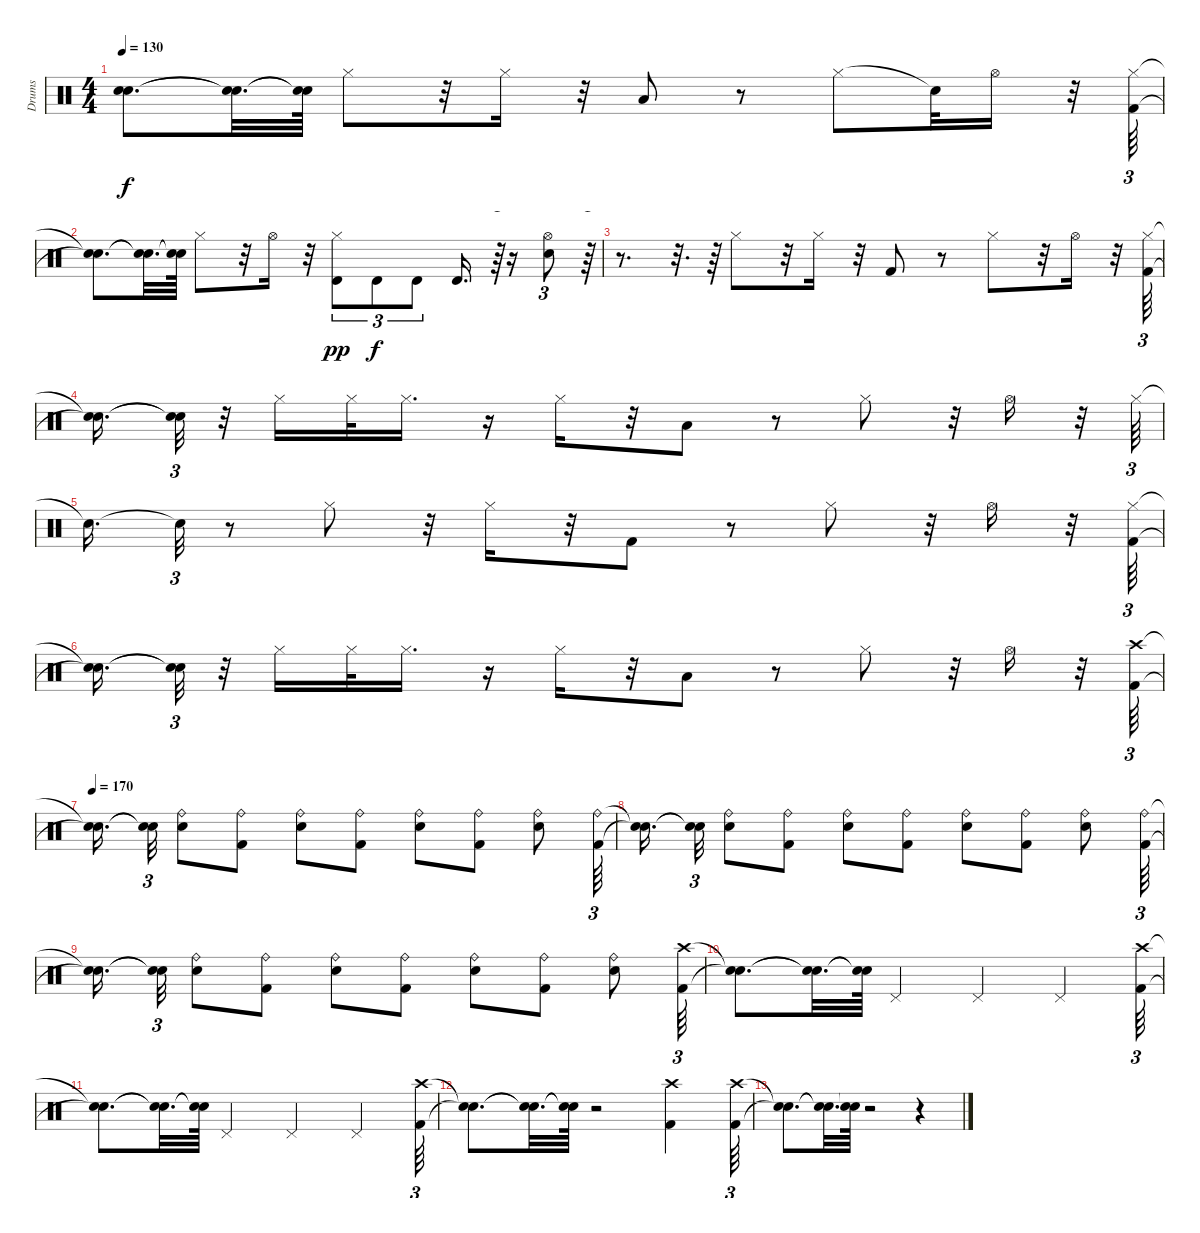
\track ("Drums" "Drums") {instrument percussion}
\staff {score}
\articulation defaults
\ts (4 4)
\tempo 130
\clef neutral
\ks c
("Snare (hit)"{t} "Snare (hit)"{t}).8{d dy f} ("Snare (hit)"{t} "Snare (hit)"{t}).32{d} ("Snare (hit)"{t} "Snare (hit)"{t}).64 "Hi-Hat (closed)".8 r.32 "Hi-Hat (closed)".16 r.32 "Low Tom (hit)".8 r.8 "Hi-Hat (closed)".8 "Snare (hit)"{t}.32 "Hi-Hat (open)".16 r.32 ("Hi-Hat (closed)" "Kick (hit) 2").64{tu (3 2)} |
("Snare (hit)"{t} "Snare (hit)"{t}).8{d} ("Snare (hit)"{t} "Snare (hit)"{t}).32{d} ("Snare (hit)"{t} "Snare (hit)"{t}).64 "Hi-Hat (closed)".8 r.32 "Hi-Hat (open)".16 r.32 ("Hi-Hat (closed)" "Timbale high (hit)").8{tu (3 2) dy pp} "Timbale high (hit)".8{tu (3 2) dy f} "Timbale high (hit)".8{tu (3 2)} "Timbale high (hit)".16{d} r.64{tu (3 2)} r.16 ("Electric Snare (hit)" "Hi-Hat (open)").8{tu (3 2)} r.64{tu (3 2)} |
r.8{d} r.32{d} r.64 "Hi-Hat (closed)".8 r.32 "Hi-Hat (closed)".16 r.32 "Kick (hit) 2".8 r.8 "Hi-Hat (closed)".8 r.32 "Hi-Hat (open)".16 r.32 ("Hi-Hat (closed)" "Kick (hit) 2").64{tu (3 2)} |
("Snare (hit)"{t} "Snare (hit)"{t}).16{d} ("Snare (hit)"{t} "Snare (hit)"{t}).32{tu (3 2)} r.32 "Hi-Hat (closed)".16 "Hi-Hat (closed)".32 "Hi-Hat (closed)".16{d} r.16 "Hi-Hat (closed)".16 r.32 "Low Tom (hit)".8 r.8 "Hi-Hat (closed)".8 r.32 "Hi-Hat (open)".16 r.32 "Hi-Hat (closed)".64{tu (3 2)} |
"Snare (hit)"{t}.16{d} "Snare (hit)"{t}.32{tu (3 2)} r.8 "Hi-Hat (closed)".8 r.32 "Hi-Hat (closed)".16 r.32 "Kick (hit) 2".8 r.8 "Hi-Hat (closed)".8 r.32 "Hi-Hat (open)".16 r.32 ("Kick (hit) 2" "Hi-Hat (closed)").64{tu (3 2)} |
("Snare (hit)"{t} "Snare (hit)"{t}).16{d} ("Snare (hit)"{t} "Snare (hit)"{t}).32{tu (3 2)} r.32 "Hi-Hat (closed)".16 "Hi-Hat (closed)".32 "Hi-Hat (closed)".16{d} r.16 "Hi-Hat (closed)".16 r.32 "Low Tom (hit)".8 r.8 "Hi-Hat (closed)".8 r.32 "Hi-Hat (open)".16 r.32 ("Kick (hit) 2" "Crash high (hit)").64{tu (3 2)} |
\tempo 170
("Snare (hit)"{t} "Snare (hit)"{t}).16{d} ("Snare (hit)"{t} "Snare (hit)"{t}).32{tu (3 2)} ("Electric Snare (hit)" "Ride (bell)").8 ("Kick (hit) 2" "Ride (bell)").8 ("Electric Snare (hit)" "Ride (bell)").8 ("Kick (hit) 2" "Ride (bell)").8 ("Electric Snare (hit)" "Ride (bell)").8 ("Kick (hit) 2" "Ride (bell)").8 ("Electric Snare (hit)" "Ride (bell)").8 ("Kick (hit) 2" "Ride (bell)").64{tu (3 2)} |
("Snare (hit)"{t} "Snare (hit)"{t}).16{d} ("Snare (hit)"{t} "Snare (hit)"{t}).32{tu (3 2)} ("Electric Snare (hit)" "Ride (bell)").8 ("Kick (hit) 2" "Ride (bell)").8 ("Electric Snare (hit)" "Ride (bell)").8 ("Kick (hit) 2" "Ride (bell)").8 ("Electric Snare (hit)" "Ride (bell)").8 ("Kick (hit) 2" "Ride (bell)").8 ("Electric Snare (hit)" "Ride (bell)").8 ("Kick (hit) 2" "Ride (bell)").64{tu (3 2)} |
("Snare (hit)"{t} "Snare (hit)"{t}).16{d} ("Snare (hit)"{t} "Snare (hit)"{t}).32{tu (3 2)} ("Electric Snare (hit)" "Ride (bell)").8 ("Kick (hit) 2" "Ride (bell)").8 ("Electric Snare (hit)" "Ride (bell)").8 ("Kick (hit) 2" "Ride (bell)").8 ("Electric Snare (hit)" "Ride (bell)").8 ("Kick (hit) 2" "Ride (bell)").8 ("Electric Snare (hit)" "Ride (bell)").8 ("Kick (hit) 2" "Crash high (hit)").64{tu (3 2)} |
("Snare (hit)"{t} "Snare (hit)"{t}).8{d} ("Snare (hit)"{t} "Snare (hit)"{t}).32{d} ("Snare (hit)"{t} "Snare (hit)"{t}).64 "Pedal Hi-Hat (hit)".4 "Pedal Hi-Hat (hit)".4 "Pedal Hi-Hat (hit)".4 ("Crash high (hit)" "Kick (hit) 2").64{tu (3 2)} |
("Snare (hit)"{t} "Snare (hit)"{t}).8{d} ("Snare (hit)"{t} "Snare (hit)"{t}).32{d} ("Snare (hit)"{t} "Snare (hit)"{t}).64 "Pedal Hi-Hat (hit)".4 "Pedal Hi-Hat (hit)".4 "Pedal Hi-Hat (hit)".4 ("Crash high (hit)" "Kick (hit) 2").64{tu (3 2)} |
("Snare (hit)"{t} "Snare (hit)"{t}).8{d} ("Snare (hit)"{t} "Snare (hit)"{t}).32{d} ("Snare (hit)"{t} "Snare (hit)"{t}).64 r.2 ("Kick (hit) 2" "Crash high (hit)").4 ("Crash high (hit)" "Kick (hit) 2").64{tu (3 2)} |
("Snare (hit)"{t} "Snare (hit)"{t}).8{d} ("Snare (hit)"{t} "Snare (hit)"{t}).32{d} ("Snare (hit)"{t} "Snare (hit)"{t}).64 r.2 r.4
